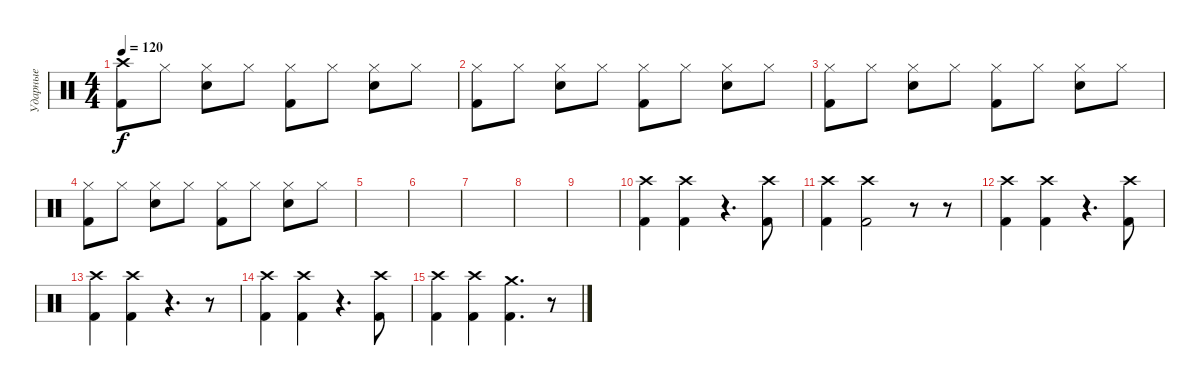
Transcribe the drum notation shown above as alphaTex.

\track ("Ударные" "Ударные") {instrument percussion}
\staff {score}
\articulation defaults
\ts (4 4)
\tempo 120
\clef neutral
\ks c
("Crash high (hit)" "Kick (hit) 2").8{dy f} "Hi-Hat (closed)".8 ("Hi-Hat (closed)" "Electric Snare (hit)").8 "Hi-Hat (closed)".8 ("Hi-Hat (closed)" "Kick (hit) 2").8 "Hi-Hat (closed)".8 ("Hi-Hat (closed)" "Electric Snare (hit)").8 "Hi-Hat (closed)".8 |
("Hi-Hat (closed)" "Kick (hit) 2").8 "Hi-Hat (closed)".8 ("Hi-Hat (closed)" "Electric Snare (hit)").8 "Hi-Hat (closed)".8 ("Hi-Hat (closed)" "Kick (hit) 2").8 "Hi-Hat (closed)".8 ("Hi-Hat (closed)" "Electric Snare (hit)").8 "Hi-Hat (closed)".8 |
("Hi-Hat (closed)" "Kick (hit) 2").8 "Hi-Hat (closed)".8 ("Hi-Hat (closed)" "Electric Snare (hit)").8 "Hi-Hat (closed)".8 ("Hi-Hat (closed)" "Kick (hit) 2").8 "Hi-Hat (closed)".8 ("Hi-Hat (closed)" "Electric Snare (hit)").8 "Hi-Hat (closed)".8 |
("Hi-Hat (closed)" "Kick (hit) 2").8 "Hi-Hat (closed)".8 ("Hi-Hat (closed)" "Electric Snare (hit)").8 "Hi-Hat (closed)".8 ("Hi-Hat (closed)" "Kick (hit) 2").8 "Hi-Hat (closed)".8 ("Hi-Hat (closed)" "Electric Snare (hit)").8 "Hi-Hat (closed)".8 |
|
|
|
|
|
("Crash high (hit)" "Kick (hit) 2").4 ("Crash high (hit)" "Kick (hit) 2").4 r.4{d} ("Crash high (hit)" "Kick (hit) 2").8 |
("Crash high (hit)" "Kick (hit) 2").4 ("Crash high (hit)" "Kick (hit) 2").2 r.8 r.8 |
("Crash high (hit)" "Kick (hit) 2").4 ("Crash high (hit)" "Kick (hit) 2").4 r.4{d} ("Crash high (hit)" "Kick (hit) 2").8 |
("Crash high (hit)" "Kick (hit) 2").4 ("Crash high (hit)" "Kick (hit) 2").4 r.4{d} r.8 |
("Crash high (hit)" "Kick (hit) 2").4 ("Crash high (hit)" "Kick (hit) 2").4 r.4{d} ("Crash high (hit)" "Kick (hit) 2").8 |
("Crash high (hit)" "Kick (hit) 2").4 ("Crash high (hit)" "Kick (hit) 2").4 ("Crash medium (hit)" "Kick (hit) 2").4{d} r.8
